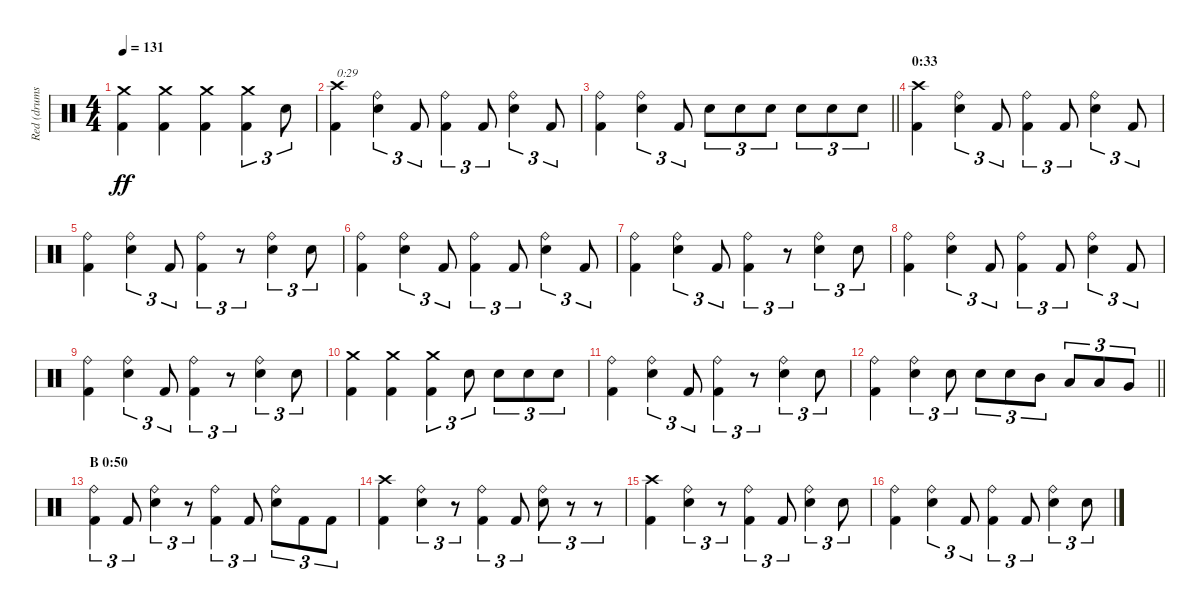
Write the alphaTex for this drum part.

\track ("Red (drums)" "Red (drums") {instrument percussion}
\staff {score}
\articulation defaults
\ts (4 4)
\tempo 131
\clef neutral
\ks c
("Crash medium (hit)" "Kick (hit) 2").4{dy ff} ("Crash medium (hit)" "Kick (hit) 2").4 ("Crash medium (hit)" "Kick (hit) 2").4 ("Crash medium (hit)" "Kick (hit) 2").4{tu (3 2)} "Electric Snare (hit)".8{tu (3 2)} |
("Crash high (hit)" "Kick (hit) 2").4{txt "0:29"} ("Ride (bell)" "Electric Snare (hit)").4{tu (3 2)} "Kick (hit) 2".8{tu (3 2)} ("Ride (bell)" "Kick (hit) 2").4{tu (3 2)} "Kick (hit) 2".8{tu (3 2)} ("Ride (bell)" "Electric Snare (hit)").4{tu (3 2)} "Kick (hit) 2".8{tu (3 2)} |
\barLineRight lightlight
("Ride (bell)" "Kick (hit) 2").4 ("Ride (bell)" "Electric Snare (hit)").4{tu (3 2)} "Kick (hit) 2".8{tu (3 2)} "Electric Snare (hit)".8{tu (3 2)} "Electric Snare (hit)".8{tu (3 2)} "Electric Snare (hit)".8{tu (3 2)} "Electric Snare (hit)".8{tu (3 2)} "Electric Snare (hit)".8{tu (3 2)} "Electric Snare (hit)".8{tu (3 2)} |
\section ("" "0:33")
("Crash high (hit)" "Kick (hit) 2").4 ("Ride (bell)" "Electric Snare (hit)").4{tu (3 2)} "Kick (hit) 2".8{tu (3 2)} ("Ride (bell)" "Kick (hit) 2").4{tu (3 2)} "Kick (hit) 2".8{tu (3 2)} ("Ride (bell)" "Electric Snare (hit)").4{tu (3 2)} "Kick (hit) 2".8{tu (3 2)} |
("Ride (bell)" "Kick (hit) 2").4 ("Ride (bell)" "Electric Snare (hit)").4{tu (3 2)} "Kick (hit) 2".8{tu (3 2)} ("Ride (bell)" "Kick (hit) 2").4{tu (3 2)} r.8{tu (3 2)} ("Ride (bell)" "Electric Snare (hit)").4{tu (3 2)} "Electric Snare (hit)".8{tu (3 2)} |
("Ride (bell)" "Kick (hit) 2").4 ("Ride (bell)" "Electric Snare (hit)").4{tu (3 2)} "Kick (hit) 2".8{tu (3 2)} ("Ride (bell)" "Kick (hit) 2").4{tu (3 2)} "Kick (hit) 2".8{tu (3 2)} ("Ride (bell)" "Electric Snare (hit)").4{tu (3 2)} "Kick (hit) 2".8{tu (3 2)} |
("Ride (bell)" "Kick (hit) 2").4 ("Ride (bell)" "Electric Snare (hit)").4{tu (3 2)} "Kick (hit) 2".8{tu (3 2)} ("Ride (bell)" "Kick (hit) 2").4{tu (3 2)} r.8{tu (3 2)} ("Ride (bell)" "Electric Snare (hit)").4{tu (3 2)} "Electric Snare (hit)".8{tu (3 2)} |
("Ride (bell)" "Kick (hit) 2").4 ("Ride (bell)" "Electric Snare (hit)").4{tu (3 2)} "Kick (hit) 2".8{tu (3 2)} ("Ride (bell)" "Kick (hit) 2").4{tu (3 2)} "Kick (hit) 2".8{tu (3 2)} ("Ride (bell)" "Electric Snare (hit)").4{tu (3 2)} "Kick (hit) 2".8{tu (3 2)} |
("Ride (bell)" "Kick (hit) 2").4 ("Ride (bell)" "Electric Snare (hit)").4{tu (3 2)} "Kick (hit) 2".8{tu (3 2)} ("Ride (bell)" "Kick (hit) 2").4{tu (3 2)} r.8{tu (3 2)} ("Ride (bell)" "Electric Snare (hit)").4{tu (3 2)} "Electric Snare (hit)".8{tu (3 2)} |
("Crash medium (hit)" "Kick (hit) 2").4 ("Crash medium (hit)" "Kick (hit) 2").4 ("Crash medium (hit)" "Kick (hit) 2").4{tu (3 2)} "Electric Snare (hit)".8{tu (3 2)} "Electric Snare (hit)".8{tu (3 2)} "Electric Snare (hit)".8{tu (3 2)} "Electric Snare (hit)".8{tu (3 2)} |
("Ride (bell)" "Kick (hit) 2").4 ("Ride (bell)" "Electric Snare (hit)").4{tu (3 2)} "Kick (hit) 2".8{tu (3 2)} ("Ride (bell)" "Kick (hit) 2").4{tu (3 2)} r.8{tu (3 2)} ("Ride (bell)" "Electric Snare (hit)").4{tu (3 2)} "Electric Snare (hit)".8{tu (3 2)} |
\barLineRight lightlight
("Ride (bell)" "Kick (hit) 2").4 ("Ride (bell)" "Electric Snare (hit)").4{tu (3 2)} "Electric Snare (hit)".8{tu (3 2)} "Electric Snare (hit)".8{tu (3 2)} "Electric Snare (hit)".8{tu (3 2)} "Mid Tom (hit)".8{tu (3 2)} "Low Tom (hit)".8{tu (3 2)} "Low Tom (hit)".8{tu (3 2)} "Very Low Tom (hit)".8{tu (3 2)} |
\section ("" "B 0:50")
("Ride (bell)" "Kick (hit) 2").4{tu (3 2)} "Kick (hit) 2".8{tu (3 2)} ("Ride (bell)" "Electric Snare (hit)").4{tu (3 2)} r.8{tu (3 2)} ("Ride (bell)" "Kick (hit) 2").4{tu (3 2)} "Kick (hit) 2".8{tu (3 2)} ("Ride (bell)" "Electric Snare (hit)").8{tu (3 2)} "Kick (hit) 2".8{tu (3 2)} "Kick (hit) 2".8{tu (3 2)} |
("Crash high (hit)" "Kick (hit) 2").4 ("Ride (bell)" "Electric Snare (hit)").4{tu (3 2)} r.8{tu (3 2)} ("Ride (bell)" "Kick (hit) 2").4{tu (3 2)} "Kick (hit) 2".8{tu (3 2)} ("Ride (bell)" "Electric Snare (hit)").8{tu (3 2)} r.8{tu (3 2)} r.8{tu (3 2)} |
("Crash high (hit)" "Kick (hit) 2").4 ("Ride (bell)" "Electric Snare (hit)").4{tu (3 2)} r.8{tu (3 2)} ("Ride (bell)" "Kick (hit) 2").4{tu (3 2)} "Kick (hit) 2".8{tu (3 2)} ("Ride (bell)" "Electric Snare (hit)").4{tu (3 2)} "Electric Snare (hit)".8{tu (3 2)} |
("Ride (bell)" "Kick (hit) 2").4 ("Ride (bell)" "Electric Snare (hit)").4{tu (3 2)} "Kick (hit) 2".8{tu (3 2)} ("Ride (bell)" "Kick (hit) 2").4{tu (3 2)} "Kick (hit) 2".8{tu (3 2)} ("Ride (bell)" "Electric Snare (hit)").4{tu (3 2)} "Electric Snare (hit)".8{tu (3 2)}
